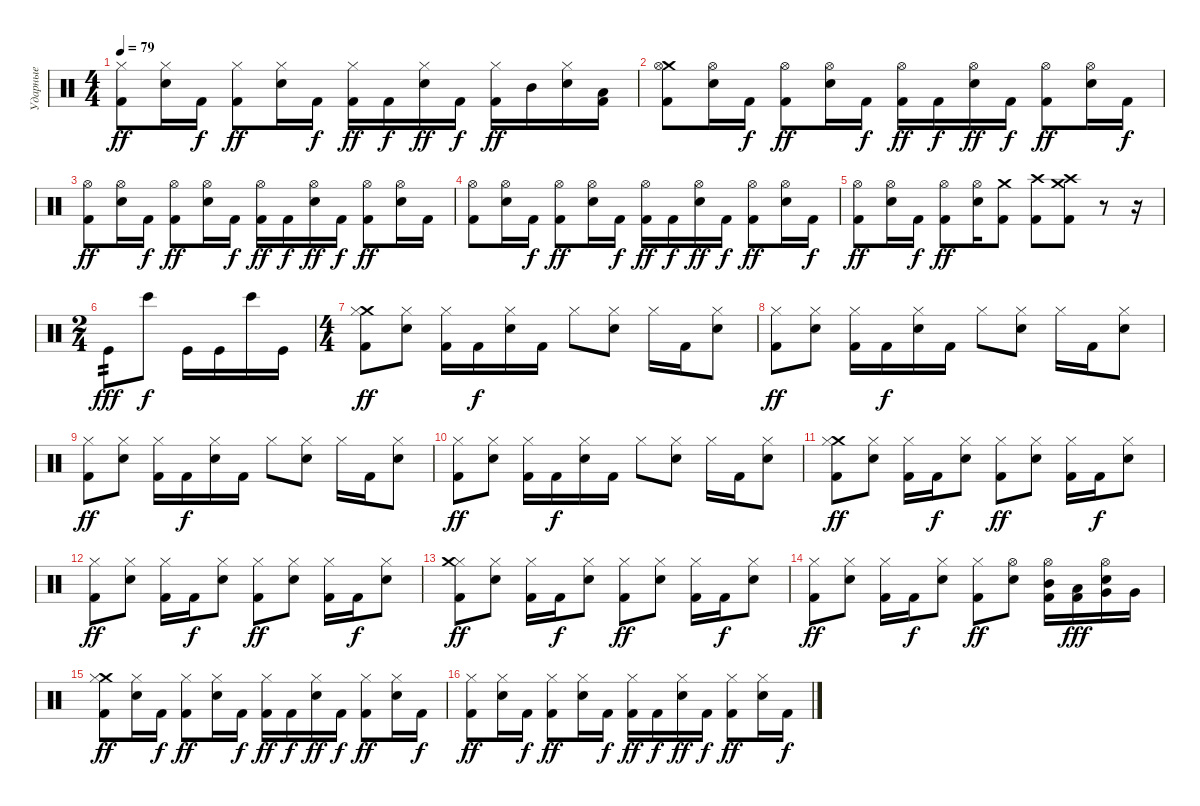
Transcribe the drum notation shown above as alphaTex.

\track ("Ударные" "Ударные") {instrument percussion}
\staff {score}
\articulation defaults
\ts (4 4)
\tempo 79
\clef neutral
\ks c
("Kick (hit) 2" "Hi-Hat (closed)").8{dy ff} ("Snare (hit) 2" "Hi-Hat (closed)").16 "Kick (hit) 2".16{dy f} ("Kick (hit) 2" "Hi-Hat (closed)").8{dy ff} ("Snare (hit) 2" "Hi-Hat (closed)").16 "Kick (hit) 2".16{dy f} ("Kick (hit) 2" "Hi-Hat (closed)").16{dy ff} "Kick (hit) 2".16{dy f} ("Snare (hit) 2" "Hi-Hat (closed)").16{dy ff} "Kick (hit) 2".16{dy f} ("Kick (hit) 2" "Hi-Hat (closed)").16{dy ff} "Mid Tom (hit)".16 ("Snare (hit) 2" "Hi-Hat (closed)").16 ("Kick (hit) 2" "Low Tom (hit)").16 |
("Kick (hit) 2" "Crash medium (hit)" "Hi-Hat (open)").8 ("Snare (hit) 2" "Hi-Hat (open)").16 "Kick (hit) 2".16{dy f} ("Kick (hit) 2" "Hi-Hat (open)").8{dy ff} ("Snare (hit) 2" "Hi-Hat (open)").16 "Kick (hit) 2".16{dy f} ("Kick (hit) 2" "Hi-Hat (open)").16{dy ff} "Kick (hit) 2".16{dy f} ("Snare (hit) 2" "Hi-Hat (open)").16{dy ff} "Kick (hit) 2".16{dy f} ("Kick (hit) 2" "Hi-Hat (open)").8{dy ff} ("Snare (hit) 2" "Hi-Hat (open)").16 "Kick (hit) 2".16{dy f} |
("Kick (hit) 2" "Hi-Hat (open)").8{dy ff} ("Snare (hit) 2" "Hi-Hat (open)").16 "Kick (hit) 2".16{dy f} ("Kick (hit) 2" "Hi-Hat (open)").8{dy ff} ("Snare (hit) 2" "Hi-Hat (open)").16 "Kick (hit) 2".16{dy f} ("Kick (hit) 2" "Hi-Hat (open)").16{dy ff} "Kick (hit) 2".16{dy f} ("Snare (hit) 2" "Hi-Hat (open)").16{dy ff} "Kick (hit) 2".16{dy f} ("Kick (hit) 2" "Hi-Hat (open)").8{dy ff} ("Snare (hit) 2" "Hi-Hat (open)").16 "Kick (hit) 2".16 |
("Kick (hit) 2" "Hi-Hat (open)").8 ("Snare (hit) 2" "Hi-Hat (open)").16 "Kick (hit) 2".16{dy f} ("Kick (hit) 2" "Hi-Hat (open)").8{dy ff} ("Snare (hit) 2" "Hi-Hat (open)").16 "Kick (hit) 2".16{dy f} ("Kick (hit) 2" "Hi-Hat (open)").16{dy ff} "Kick (hit) 2".16{dy f} ("Snare (hit) 2" "Hi-Hat (open)").16{dy ff} "Kick (hit) 2".16{dy f} ("Kick (hit) 2" "Hi-Hat (open)").8{dy ff} ("Snare (hit) 2" "Hi-Hat (open)").16 "Kick (hit) 2".16{dy f} |
("Kick (hit) 2" "Hi-Hat (open)").8{dy ff} ("Snare (hit) 2" "Hi-Hat (open)").16 "Kick (hit) 2".16{dy f} ("Kick (hit) 2" "Hi-Hat (open)").8{dy ff} ("Snare (hit) 2" "Hi-Hat (open)").16 ("Kick (hit) 2" "Crash medium (hit)").8 ("Kick (hit) 2" "Crash high (hit)").8 ("Kick (hit) 2" "Crash medium (hit)" "Crash high (hit)").8 r.8 r.16 |
\ts (2 4)
"Kick (hit)".8{tp 2 dy fff} "Bongo High (hit)".8{dy f} "Kick (hit)".16 "Kick (hit)".16 "Bongo High (hit)".16 "Kick (hit)".16 |
\ts (4 4)
("Kick (hit) 2" "Crash medium (hit)" "Hi-Hat (closed)").8{dy ff} ("Electric Snare (hit)" "Hi-Hat (closed)").8 ("Kick (hit) 2" "Hi-Hat (closed)").16 "Kick (hit) 2".16{dy f} ("Electric Snare (hit)" "Hi-Hat (closed)").16 "Kick (hit) 2".16 "Hi-Hat (closed)".8 ("Electric Snare (hit)" "Hi-Hat (closed)").8 "Hi-Hat (closed)".16 "Kick (hit) 2".16 ("Hi-Hat (closed)" "Electric Snare (hit)").8 |
("Kick (hit) 2" "Hi-Hat (closed)").8{dy ff} ("Electric Snare (hit)" "Hi-Hat (closed)").8 ("Kick (hit) 2" "Hi-Hat (closed)").16 "Kick (hit) 2".16{dy f} ("Electric Snare (hit)" "Hi-Hat (closed)").16 "Kick (hit) 2".16 "Hi-Hat (closed)".8 ("Electric Snare (hit)" "Hi-Hat (closed)").8 "Hi-Hat (closed)".16 "Kick (hit) 2".16 ("Hi-Hat (closed)" "Electric Snare (hit)").8 |
("Kick (hit) 2" "Hi-Hat (closed)").8{dy ff} ("Electric Snare (hit)" "Hi-Hat (closed)").8 ("Kick (hit) 2" "Hi-Hat (closed)").16 "Kick (hit) 2".16{dy f} ("Electric Snare (hit)" "Hi-Hat (closed)").16 "Kick (hit) 2".16 "Hi-Hat (closed)".8 ("Electric Snare (hit)" "Hi-Hat (closed)").8 "Hi-Hat (closed)".16 "Kick (hit) 2".16 ("Hi-Hat (closed)" "Electric Snare (hit)").8 |
("Kick (hit) 2" "Hi-Hat (closed)").8{dy ff} ("Electric Snare (hit)" "Hi-Hat (closed)").8 ("Kick (hit) 2" "Hi-Hat (closed)").16 "Kick (hit) 2".16{dy f} ("Electric Snare (hit)" "Hi-Hat (closed)").16 "Kick (hit) 2".16 "Hi-Hat (closed)".8 ("Electric Snare (hit)" "Hi-Hat (closed)").8 "Hi-Hat (closed)".16 "Kick (hit) 2".16 ("Hi-Hat (closed)" "Electric Snare (hit)").8 |
("Kick (hit) 2" "Crash medium (hit)" "Hi-Hat (closed)").8{dy ff} ("Electric Snare (hit)" "Hi-Hat (closed)").8 ("Kick (hit) 2" "Hi-Hat (closed)").16 "Kick (hit) 2".16{dy f} ("Electric Snare (hit)" "Hi-Hat (closed)").8 ("Kick (hit) 2" "Hi-Hat (closed)").8{dy ff} ("Electric Snare (hit)" "Hi-Hat (closed)").8 ("Kick (hit) 2" "Hi-Hat (closed)").16 "Kick (hit) 2".16{dy f} ("Electric Snare (hit)" "Hi-Hat (closed)").8 |
("Kick (hit) 2" "Hi-Hat (closed)").8{dy ff} ("Electric Snare (hit)" "Hi-Hat (closed)").8 ("Kick (hit) 2" "Hi-Hat (closed)").16 "Kick (hit) 2".16{dy f} ("Electric Snare (hit)" "Hi-Hat (closed)").8 ("Kick (hit) 2" "Hi-Hat (closed)").8{dy ff} ("Electric Snare (hit)" "Hi-Hat (closed)").8 ("Kick (hit) 2" "Hi-Hat (closed)").16 "Kick (hit) 2".16{dy f} ("Electric Snare (hit)" "Hi-Hat (closed)").8 |
("Kick (hit) 2" "Hi-Hat (closed)" "Crash medium (hit)").8{dy ff} ("Electric Snare (hit)" "Hi-Hat (closed)").8 ("Kick (hit) 2" "Hi-Hat (closed)").16 "Kick (hit) 2".16{dy f} ("Electric Snare (hit)" "Hi-Hat (closed)").8 ("Kick (hit) 2" "Hi-Hat (closed)").8{dy ff} ("Electric Snare (hit)" "Hi-Hat (closed)").8 ("Kick (hit) 2" "Hi-Hat (closed)").16 "Kick (hit) 2".16{dy f} ("Electric Snare (hit)" "Hi-Hat (closed)").8 |
("Kick (hit) 2" "Hi-Hat (closed)").8{dy ff} ("Electric Snare (hit)" "Hi-Hat (closed)").8 ("Kick (hit) 2" "Hi-Hat (closed)").16 "Kick (hit) 2".16{dy f} ("Electric Snare (hit)" "Hi-Hat (closed)").8 ("Kick (hit) 2" "Hi-Hat (closed)").8{dy ff} ("Electric Snare (hit)" "Hi-Hat (open)").8 ("Kick (hit) 2" "Mid Tom (hit)" "Hi-Hat (open)").16 ("Kick (hit) 2" "Low Tom (hit)").16{dy fff} ("Electric Snare (hit)" "Very Low Tom (hit)" "Hi-Hat (open)").16 "Very Low Tom (hit)".16 |
("Kick (hit) 2" "Crash medium (hit)" "Hi-Hat (closed)").8{dy ff} ("Snare (hit) 2" "Hi-Hat (closed)").16 "Kick (hit) 2".16{dy f} ("Kick (hit) 2" "Hi-Hat (closed)").8{dy ff} ("Snare (hit) 2" "Hi-Hat (closed)").16 "Kick (hit) 2".16{dy f} ("Kick (hit) 2" "Hi-Hat (closed)").16{dy ff} "Kick (hit) 2".16{dy f} ("Snare (hit) 2" "Hi-Hat (closed)").16{dy ff} "Kick (hit) 2".16{dy f} ("Kick (hit) 2" "Hi-Hat (closed)").8{dy ff} ("Snare (hit) 2" "Hi-Hat (closed)").16 "Kick (hit) 2".16{dy f} |
("Kick (hit) 2" "Hi-Hat (closed)").8{dy ff} ("Snare (hit) 2" "Hi-Hat (closed)").16 "Kick (hit) 2".16{dy f} ("Kick (hit) 2" "Hi-Hat (closed)").8{dy ff} ("Snare (hit) 2" "Hi-Hat (closed)").16 "Kick (hit) 2".16{dy f} ("Kick (hit) 2" "Hi-Hat (closed)").16{dy ff} "Kick (hit) 2".16{dy f} ("Snare (hit) 2" "Hi-Hat (closed)").16{dy ff} "Kick (hit) 2".16{dy f} ("Kick (hit) 2" "Hi-Hat (closed)").8{dy ff} ("Snare (hit) 2" "Hi-Hat (closed)").16 "Kick (hit) 2".16{dy f}
